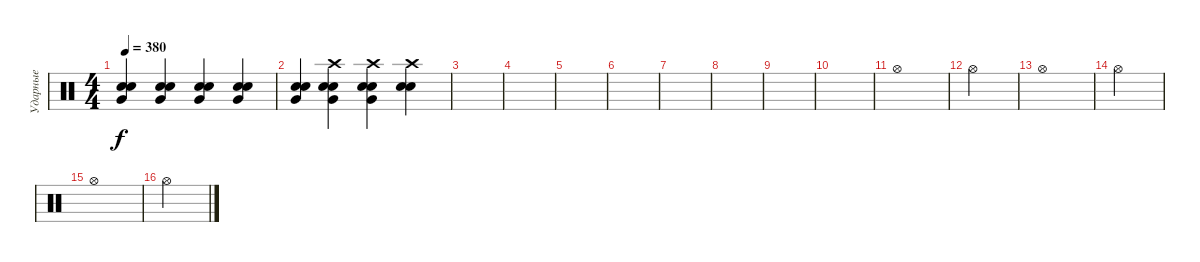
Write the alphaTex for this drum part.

\track ("Ударные" "Ударные") {instrument percussion}
\staff {score}
\articulation defaults
\ts (4 4)
\tempo 380
\clef neutral
\ks c
("Electric Snare (hit)" "Electric Snare (hit)" "Very Low Tom (hit)").4{dy f} ("Electric Snare (hit)" "Electric Snare (hit)" "Very Low Tom (hit)").4 ("Electric Snare (hit)" "Electric Snare (hit)" "Very Low Tom (hit)").4 ("Electric Snare (hit)" "Electric Snare (hit)" "Very Low Tom (hit)").4 |
("Electric Snare (hit)" "Electric Snare (hit)" "Very Low Tom (hit)").4 ("Electric Snare (hit)" "Electric Snare (hit)" "Crash high (hit)" "Very Low Tom (hit)").4 ("Electric Snare (hit)" "Electric Snare (hit)" "Crash high (hit)" "Very Low Tom (hit)").4 ("Electric Snare (hit)" "Electric Snare (hit)" "Crash high (hit)").4 |
|
|
|
|
|
|
|
|
"Hi-Hat (open)".1 |
"Hi-Hat (open)".2 |
"Hi-Hat (open)".1 |
"Hi-Hat (open)".2 |
"Hi-Hat (open)".1 |
"Hi-Hat (open)".2
